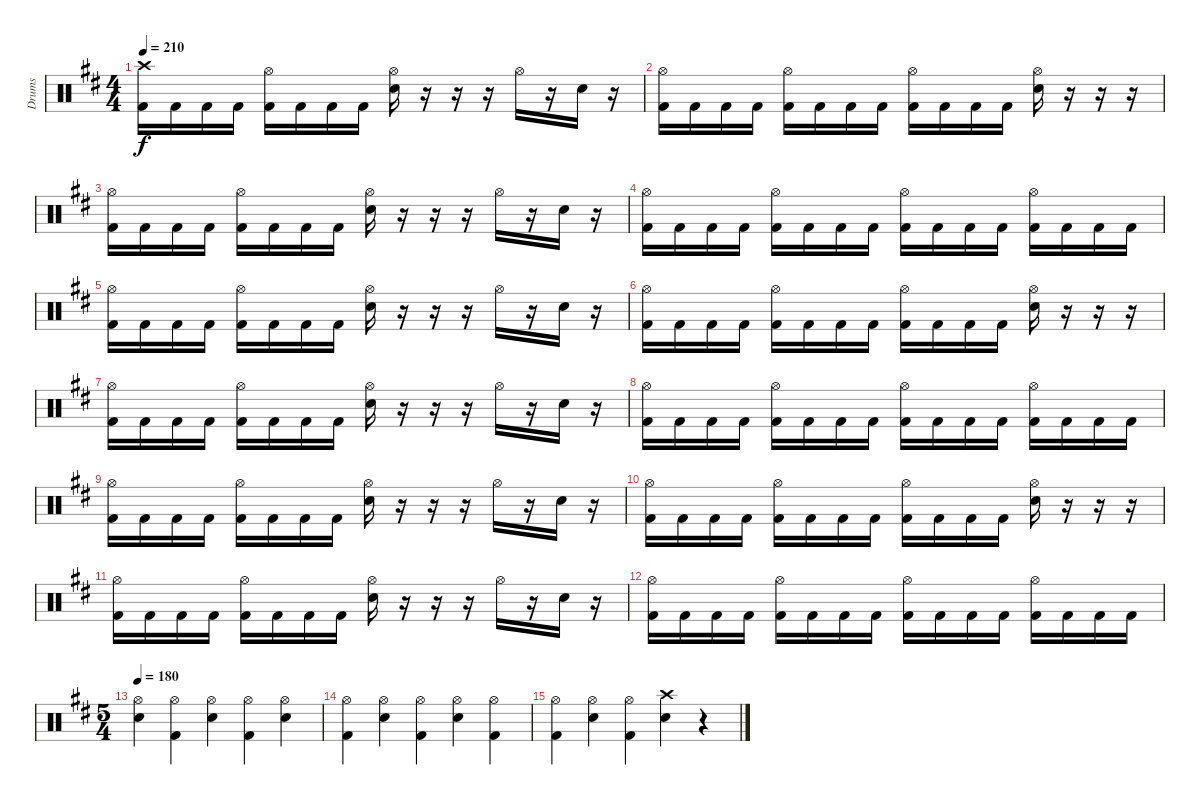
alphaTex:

\track ("Drums" "Drums") {instrument percussion}
\staff {score}
\articulation defaults
\ts (4 4)
\tempo 210
\clef neutral
\ks bminor
("Kick (hit) 2" "Crash high (hit)").16{dy f} "Kick (hit) 2".16 "Kick (hit) 2".16 "Kick (hit) 2".16 ("Kick (hit) 2" "Hi-Hat (open)").16 "Kick (hit) 2".16 "Kick (hit) 2".16 "Kick (hit) 2".16 ("Electric Snare (hit)" "Hi-Hat (open)").16 r.16 r.16 r.16 "Hi-Hat (open)".16 r.16 "Electric Snare (hit)".16 r.16 |
("Kick (hit) 2" "Hi-Hat (open)").16 "Kick (hit) 2".16 "Kick (hit) 2".16 "Kick (hit) 2".16 ("Kick (hit) 2" "Hi-Hat (open)").16 "Kick (hit) 2".16 "Kick (hit) 2".16 "Kick (hit) 2".16 ("Kick (hit) 2" "Hi-Hat (open)").16 "Kick (hit) 2".16 "Kick (hit) 2".16 "Kick (hit) 2".16 ("Electric Snare (hit)" "Hi-Hat (open)").16 r.16 r.16 r.16 |
("Kick (hit) 2" "Hi-Hat (open)").16 "Kick (hit) 2".16 "Kick (hit) 2".16 "Kick (hit) 2".16 ("Kick (hit) 2" "Hi-Hat (open)").16 "Kick (hit) 2".16 "Kick (hit) 2".16 "Kick (hit) 2".16 ("Electric Snare (hit)" "Hi-Hat (open)").16 r.16 r.16 r.16 "Hi-Hat (open)".16 r.16 "Electric Snare (hit)".16 r.16 |
("Kick (hit) 2" "Hi-Hat (open)").16 "Kick (hit) 2".16 "Kick (hit) 2".16 "Kick (hit) 2".16 ("Kick (hit) 2" "Hi-Hat (open)").16 "Kick (hit) 2".16 "Kick (hit) 2".16 "Kick (hit) 2".16 ("Kick (hit) 2" "Hi-Hat (open)").16 "Kick (hit) 2".16 "Kick (hit) 2".16 "Kick (hit) 2".16 ("Kick (hit) 2" "Hi-Hat (open)").16 "Kick (hit) 2".16 "Kick (hit) 2".16 "Kick (hit) 2".16 |
("Kick (hit) 2" "Hi-Hat (open)").16 "Kick (hit) 2".16 "Kick (hit) 2".16 "Kick (hit) 2".16 ("Kick (hit) 2" "Hi-Hat (open)").16 "Kick (hit) 2".16 "Kick (hit) 2".16 "Kick (hit) 2".16 ("Electric Snare (hit)" "Hi-Hat (open)").16 r.16 r.16 r.16 "Hi-Hat (open)".16 r.16 "Electric Snare (hit)".16 r.16 |
("Kick (hit) 2" "Hi-Hat (open)").16 "Kick (hit) 2".16 "Kick (hit) 2".16 "Kick (hit) 2".16 ("Kick (hit) 2" "Hi-Hat (open)").16 "Kick (hit) 2".16 "Kick (hit) 2".16 "Kick (hit) 2".16 ("Kick (hit) 2" "Hi-Hat (open)").16 "Kick (hit) 2".16 "Kick (hit) 2".16 "Kick (hit) 2".16 ("Electric Snare (hit)" "Hi-Hat (open)").16 r.16 r.16 r.16 |
("Kick (hit) 2" "Hi-Hat (open)").16 "Kick (hit) 2".16 "Kick (hit) 2".16 "Kick (hit) 2".16 ("Kick (hit) 2" "Hi-Hat (open)").16 "Kick (hit) 2".16 "Kick (hit) 2".16 "Kick (hit) 2".16 ("Electric Snare (hit)" "Hi-Hat (open)").16 r.16 r.16 r.16 "Hi-Hat (open)".16 r.16 "Electric Snare (hit)".16 r.16 |
("Kick (hit) 2" "Hi-Hat (open)").16 "Kick (hit) 2".16 "Kick (hit) 2".16 "Kick (hit) 2".16 ("Kick (hit) 2" "Hi-Hat (open)").16 "Kick (hit) 2".16 "Kick (hit) 2".16 "Kick (hit) 2".16 ("Kick (hit) 2" "Hi-Hat (open)").16 "Kick (hit) 2".16 "Kick (hit) 2".16 "Kick (hit) 2".16 ("Kick (hit) 2" "Hi-Hat (open)").16 "Kick (hit) 2".16 "Kick (hit) 2".16 "Kick (hit) 2".16 |
("Kick (hit) 2" "Hi-Hat (open)").16 "Kick (hit) 2".16 "Kick (hit) 2".16 "Kick (hit) 2".16 ("Kick (hit) 2" "Hi-Hat (open)").16 "Kick (hit) 2".16 "Kick (hit) 2".16 "Kick (hit) 2".16 ("Electric Snare (hit)" "Hi-Hat (open)").16 r.16 r.16 r.16 "Hi-Hat (open)".16 r.16 "Electric Snare (hit)".16 r.16 |
("Kick (hit) 2" "Hi-Hat (open)").16 "Kick (hit) 2".16 "Kick (hit) 2".16 "Kick (hit) 2".16 ("Kick (hit) 2" "Hi-Hat (open)").16 "Kick (hit) 2".16 "Kick (hit) 2".16 "Kick (hit) 2".16 ("Kick (hit) 2" "Hi-Hat (open)").16 "Kick (hit) 2".16 "Kick (hit) 2".16 "Kick (hit) 2".16 ("Electric Snare (hit)" "Hi-Hat (open)").16 r.16 r.16 r.16 |
("Kick (hit) 2" "Hi-Hat (open)").16 "Kick (hit) 2".16 "Kick (hit) 2".16 "Kick (hit) 2".16 ("Kick (hit) 2" "Hi-Hat (open)").16 "Kick (hit) 2".16 "Kick (hit) 2".16 "Kick (hit) 2".16 ("Electric Snare (hit)" "Hi-Hat (open)").16 r.16 r.16 r.16 "Hi-Hat (open)".16 r.16 "Electric Snare (hit)".16 r.16 |
("Kick (hit) 2" "Hi-Hat (open)").16 "Kick (hit) 2".16 "Kick (hit) 2".16 "Kick (hit) 2".16 ("Kick (hit) 2" "Hi-Hat (open)").16 "Kick (hit) 2".16 "Kick (hit) 2".16 "Kick (hit) 2".16 ("Kick (hit) 2" "Hi-Hat (open)").16 "Kick (hit) 2".16 "Kick (hit) 2".16 "Kick (hit) 2".16 ("Kick (hit) 2" "Hi-Hat (open)").16 "Kick (hit) 2".16 "Kick (hit) 2".16 "Kick (hit) 2".16 |
\ts (5 4)
\tempo 180
("Electric Snare (hit)" "Hi-Hat (open)").4 ("Kick (hit) 2" "Hi-Hat (open)").4 ("Electric Snare (hit)" "Hi-Hat (open)").4 ("Kick (hit) 2" "Hi-Hat (open)").4 ("Electric Snare (hit)" "Hi-Hat (open)").4 |
("Kick (hit) 2" "Hi-Hat (open)").4 ("Electric Snare (hit)" "Hi-Hat (open)").4 ("Kick (hit) 2" "Hi-Hat (open)").4 ("Electric Snare (hit)" "Hi-Hat (open)").4 ("Kick (hit) 2" "Hi-Hat (open)").4 |
("Kick (hit) 2" "Hi-Hat (open)").4 ("Electric Snare (hit)" "Hi-Hat (open)").4 ("Kick (hit) 2" "Hi-Hat (open)").4 ("Electric Snare (hit)" "Crash high (hit)").4 r.4
